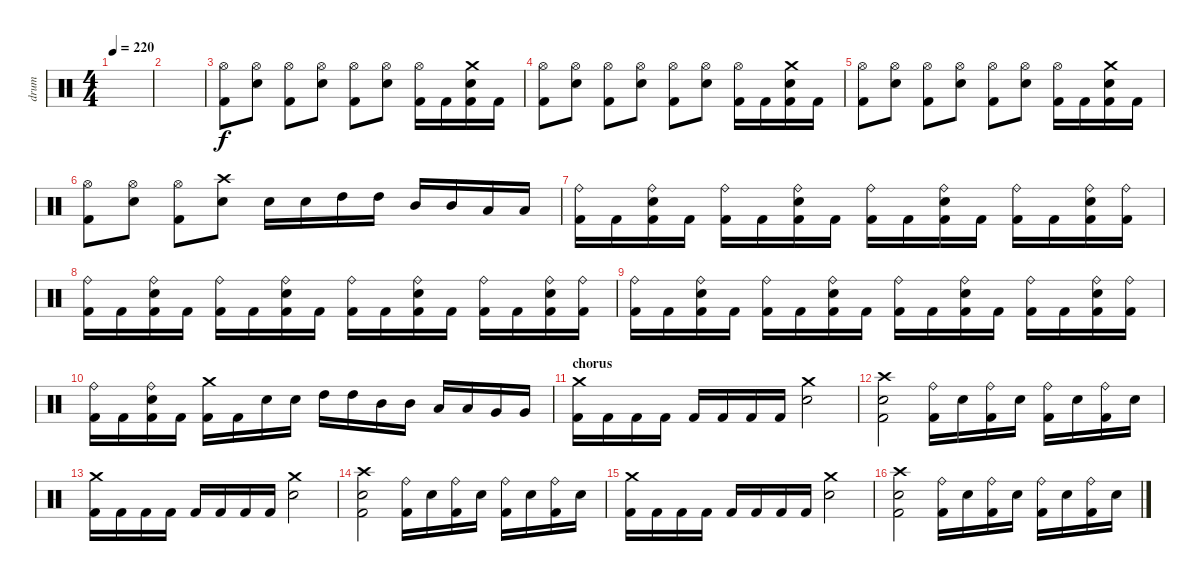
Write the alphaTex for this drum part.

\track ("drum" "drum") {instrument percussion}
\staff {score}
\articulation defaults
\ts (4 4)
\tempo 220
\clef neutral
\ks c
|
|
("Hi-Hat (open)" "Kick (hit) 2").8 ("Hi-Hat (open)" "Electric Snare (hit)").8 ("Hi-Hat (open)" "Kick (hit) 2").8 ("Hi-Hat (open)" "Electric Snare (hit)").8 ("Hi-Hat (open)" "Kick (hit) 2").8 ("Hi-Hat (open)" "Electric Snare (hit)").8 ("Hi-Hat (open)" "Kick (hit) 2").16 "Kick (hit) 2".16 ("Crash medium (hit)" "Electric Snare (hit)" "Kick (hit) 2").16 "Kick (hit) 2".16 |
("Hi-Hat (open)" "Kick (hit) 2").8 ("Hi-Hat (open)" "Electric Snare (hit)").8 ("Hi-Hat (open)" "Kick (hit) 2").8 ("Hi-Hat (open)" "Electric Snare (hit)").8 ("Hi-Hat (open)" "Kick (hit) 2").8 ("Hi-Hat (open)" "Electric Snare (hit)").8 ("Hi-Hat (open)" "Kick (hit) 2").16 "Kick (hit) 2".16 ("Crash medium (hit)" "Electric Snare (hit)" "Kick (hit) 2").16 "Kick (hit) 2".16 |
("Hi-Hat (open)" "Kick (hit) 2").8 ("Hi-Hat (open)" "Electric Snare (hit)").8 ("Hi-Hat (open)" "Kick (hit) 2").8 ("Hi-Hat (open)" "Electric Snare (hit)").8 ("Hi-Hat (open)" "Kick (hit) 2").8 ("Hi-Hat (open)" "Electric Snare (hit)").8 ("Hi-Hat (open)" "Kick (hit) 2").16 "Kick (hit) 2".16 ("Crash medium (hit)" "Electric Snare (hit)" "Kick (hit) 2").16 "Kick (hit) 2".16 |
("Hi-Hat (open)" "Kick (hit) 2").8 ("Hi-Hat (open)" "Electric Snare (hit)").8 ("Hi-Hat (open)" "Kick (hit) 2").8 ("Crash high (hit)" "Electric Snare (hit)").8 "Electric Snare (hit)".16 "Electric Snare (hit)".16 "High Tom (hit)".16 "High Tom (hit)".16 "Mid Tom (hit)".16 "Mid Tom (hit)".16 "Low Tom (hit)".16 "Low Tom (hit)".16 |
("Ride (bell)" "Kick (hit) 2").16 "Kick (hit) 2".16 ("Ride (bell)" "Electric Snare (hit)" "Kick (hit) 2").16 "Kick (hit) 2".16 ("Ride (bell)" "Kick (hit) 2").16 "Kick (hit) 2".16 ("Ride (bell)" "Electric Snare (hit)" "Kick (hit) 2").16 "Kick (hit) 2".16 ("Ride (bell)" "Kick (hit) 2").16 "Kick (hit) 2".16 ("Ride (bell)" "Electric Snare (hit)" "Kick (hit) 2").16 "Kick (hit) 2".16 ("Ride (bell)" "Kick (hit) 2").16 "Kick (hit) 2".16 ("Ride (bell)" "Electric Snare (hit)" "Kick (hit) 2").16 ("Ride (bell)" "Kick (hit) 2").16 |
("Ride (bell)" "Kick (hit) 2").16 "Kick (hit) 2".16 ("Ride (bell)" "Electric Snare (hit)" "Kick (hit) 2").16 "Kick (hit) 2".16 ("Ride (bell)" "Kick (hit) 2").16 "Kick (hit) 2".16 ("Ride (bell)" "Electric Snare (hit)" "Kick (hit) 2").16 "Kick (hit) 2".16 ("Ride (bell)" "Kick (hit) 2").16 "Kick (hit) 2".16 ("Ride (bell)" "Electric Snare (hit)" "Kick (hit) 2").16 "Kick (hit) 2".16 ("Ride (bell)" "Kick (hit) 2").16 "Kick (hit) 2".16 ("Ride (bell)" "Electric Snare (hit)" "Kick (hit) 2").16 ("Ride (bell)" "Kick (hit) 2").16 |
("Ride (bell)" "Kick (hit) 2").16 "Kick (hit) 2".16 ("Ride (bell)" "Electric Snare (hit)" "Kick (hit) 2").16 "Kick (hit) 2".16 ("Ride (bell)" "Kick (hit) 2").16 "Kick (hit) 2".16 ("Ride (bell)" "Electric Snare (hit)" "Kick (hit) 2").16 "Kick (hit) 2".16 ("Ride (bell)" "Kick (hit) 2").16 "Kick (hit) 2".16 ("Ride (bell)" "Electric Snare (hit)" "Kick (hit) 2").16 "Kick (hit) 2".16 ("Ride (bell)" "Kick (hit) 2").16 "Kick (hit) 2".16 ("Ride (bell)" "Electric Snare (hit)" "Kick (hit) 2").16 ("Ride (bell)" "Kick (hit) 2").16 |
("Ride (bell)" "Kick (hit) 2").16 "Kick (hit) 2".16 ("Ride (bell)" "Electric Snare (hit)" "Kick (hit) 2").16 "Kick (hit) 2".16 ("Crash medium (hit)" "Kick (hit) 2").16 "Kick (hit) 2".16 "Electric Snare (hit)".16 "Electric Snare (hit)".16 "High Tom (hit)".16 "High Tom (hit)".16 "Mid Tom (hit)".16 "Mid Tom (hit)".16 "Low Tom (hit)".16 "Low Tom (hit)".16 "Very Low Tom (hit)".16 "Very Low Tom (hit)".16 |
\section ("" "chorus")
("Crash medium (hit)" "Kick (hit) 2").16 "Kick (hit) 2".16 "Kick (hit) 2".16 "Kick (hit) 2".16 "Kick (hit) 2".16 "Kick (hit) 2".16 "Kick (hit) 2".16 "Kick (hit) 2".16 ("Crash medium (hit)" "Electric Snare (hit)").2 |
("Crash high (hit)" "Electric Snare (hit)" "Kick (hit) 2").2 ("Ride (bell)" "Kick (hit) 2").16 "Electric Snare (hit)".16 ("Ride (bell)" "Kick (hit) 2").16 "Electric Snare (hit)".16 ("Ride (bell)" "Kick (hit) 2").16 "Electric Snare (hit)".16 ("Ride (bell)" "Kick (hit) 2").16 "Electric Snare (hit)".16 |
("Crash medium (hit)" "Kick (hit) 2").16 "Kick (hit) 2".16 "Kick (hit) 2".16 "Kick (hit) 2".16 "Kick (hit) 2".16 "Kick (hit) 2".16 "Kick (hit) 2".16 "Kick (hit) 2".16 ("Crash medium (hit)" "Electric Snare (hit)").2 |
("Crash high (hit)" "Electric Snare (hit)" "Kick (hit) 2").2 ("Ride (bell)" "Kick (hit) 2").16 "Electric Snare (hit)".16 ("Ride (bell)" "Kick (hit) 2").16 "Electric Snare (hit)".16 ("Ride (bell)" "Kick (hit) 2").16 "Electric Snare (hit)".16 ("Ride (bell)" "Kick (hit) 2").16 "Electric Snare (hit)".16 |
("Crash medium (hit)" "Kick (hit) 2").16 "Kick (hit) 2".16 "Kick (hit) 2".16 "Kick (hit) 2".16 "Kick (hit) 2".16 "Kick (hit) 2".16 "Kick (hit) 2".16 "Kick (hit) 2".16 ("Crash medium (hit)" "Electric Snare (hit)").2 |
("Crash high (hit)" "Electric Snare (hit)" "Kick (hit) 2").2 ("Ride (bell)" "Kick (hit) 2").16 "Electric Snare (hit)".16 ("Ride (bell)" "Kick (hit) 2").16 "Electric Snare (hit)".16 ("Ride (bell)" "Kick (hit) 2").16 "Electric Snare (hit)".16 ("Ride (bell)" "Kick (hit) 2").16 "Electric Snare (hit)".16
